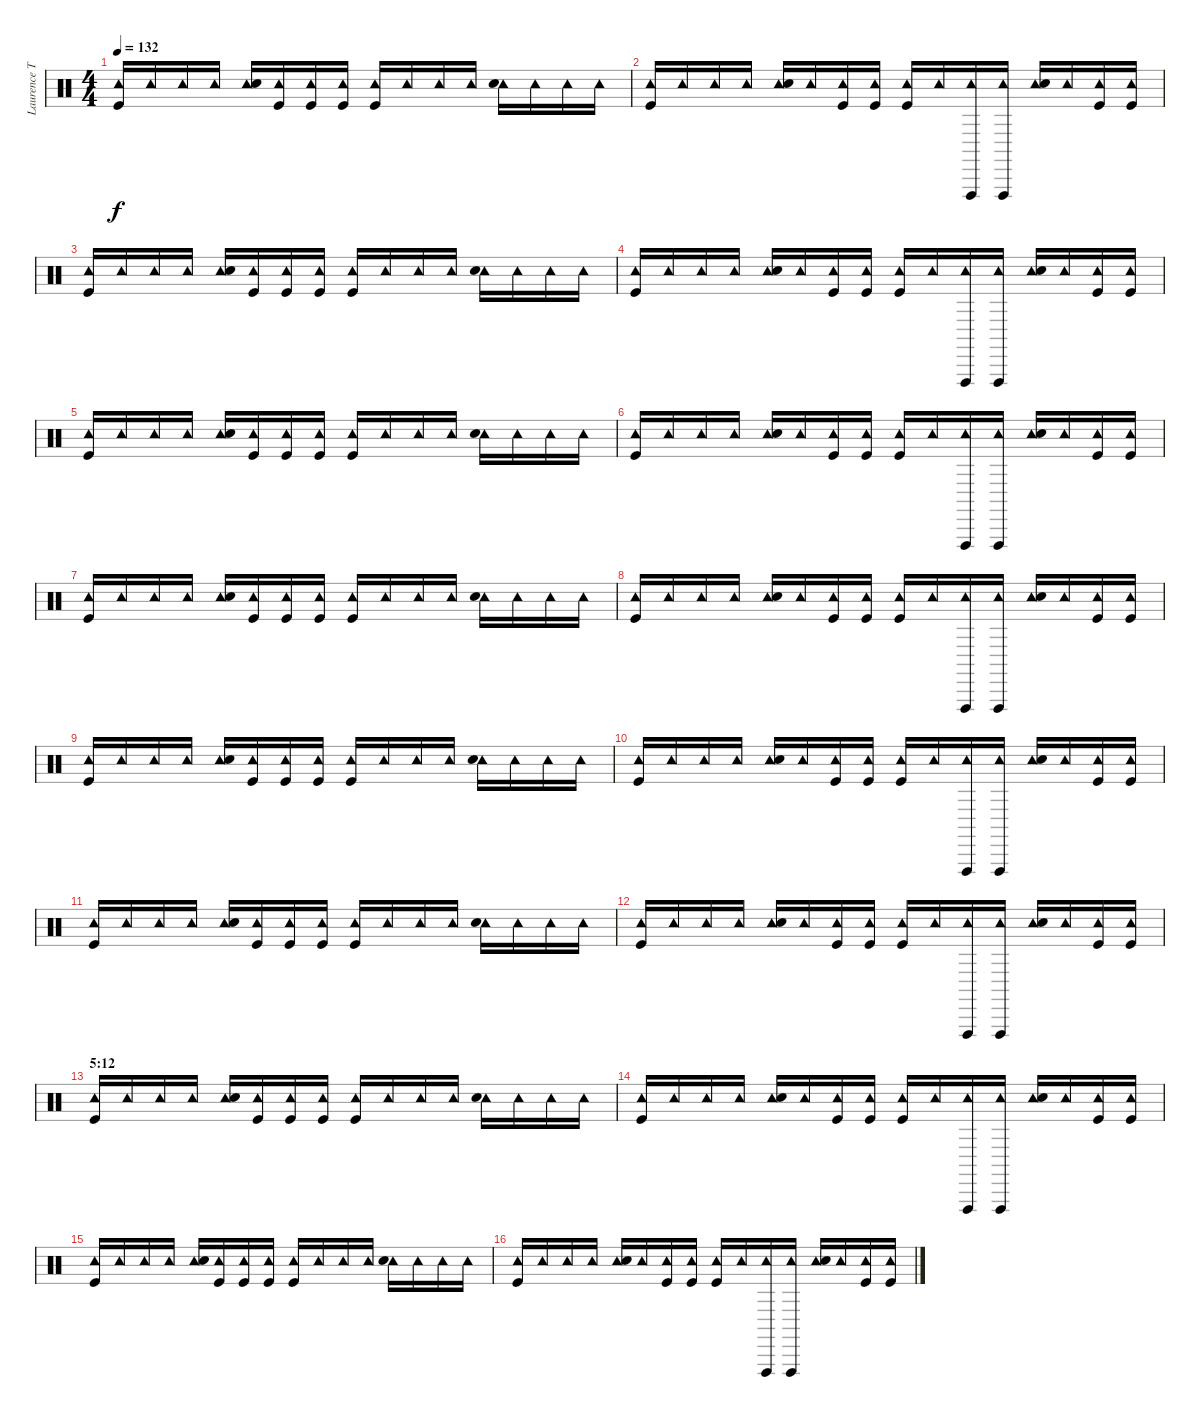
\track ("Laurence Tolhurst (drums)" "Laurence T") {instrument percussion}
\staff {score}
\articulation defaults
\ts (4 4)
\tempo 132
\clef neutral
\ks c
("Tambourine (hit)" "Kick (hit)").16{dy f} "Tambourine (hit)".16 "Tambourine (hit)".16 "Tambourine (hit)".16 ("Tambourine (hit)" "Snare (hit) 2").16 ("Tambourine (hit)" "Kick (hit)").16 ("Tambourine (hit)" "Kick (hit)").16 ("Tambourine (hit)" "Kick (hit)").16 ("Tambourine (hit)" "Kick (hit)").16 "Tambourine (hit)".16 "Tambourine (hit)".16 "Tambourine (hit)".16 ("Tambourine (hit)" "Snare (hit) 2").16 "Tambourine (hit)".16 "Tambourine (hit)".16 "Tambourine (hit)".16 |
("Tambourine (hit)" "Kick (hit)").16 "Tambourine (hit)".16 "Tambourine (hit)".16 "Tambourine (hit)".16 ("Tambourine (hit)" "Snare (hit) 2").16 "Tambourine (hit)".16 ("Tambourine (hit)" "Kick (hit)").16 ("Tambourine (hit)" "Kick (hit)").16 ("Tambourine (hit)" "Kick (hit)").16 "Tambourine (hit)".16 ("Tambourine (hit)" "Vibraslap (hit)").16 ("Tambourine (hit)" "Vibraslap (hit)").16 ("Tambourine (hit)" "Snare (hit) 2").16 "Tambourine (hit)".16 ("Tambourine (hit)" "Kick (hit)").16 ("Tambourine (hit)" "Kick (hit)").16 |
("Tambourine (hit)" "Kick (hit)").16 "Tambourine (hit)".16 "Tambourine (hit)".16 "Tambourine (hit)".16 ("Tambourine (hit)" "Snare (hit) 2").16 ("Tambourine (hit)" "Kick (hit)").16 ("Tambourine (hit)" "Kick (hit)").16 ("Tambourine (hit)" "Kick (hit)").16 ("Tambourine (hit)" "Kick (hit)").16 "Tambourine (hit)".16 "Tambourine (hit)".16 "Tambourine (hit)".16 ("Tambourine (hit)" "Snare (hit) 2").16 "Tambourine (hit)".16 "Tambourine (hit)".16 "Tambourine (hit)".16 |
("Tambourine (hit)" "Kick (hit)").16 "Tambourine (hit)".16 "Tambourine (hit)".16 "Tambourine (hit)".16 ("Tambourine (hit)" "Snare (hit) 2").16 "Tambourine (hit)".16 ("Tambourine (hit)" "Kick (hit)").16 ("Tambourine (hit)" "Kick (hit)").16 ("Tambourine (hit)" "Kick (hit)").16 "Tambourine (hit)".16 ("Tambourine (hit)" "Vibraslap (hit)").16 ("Tambourine (hit)" "Vibraslap (hit)").16 ("Tambourine (hit)" "Snare (hit) 2").16 "Tambourine (hit)".16 ("Tambourine (hit)" "Kick (hit)").16 ("Tambourine (hit)" "Kick (hit)").16 |
("Tambourine (hit)" "Kick (hit)").16 "Tambourine (hit)".16 "Tambourine (hit)".16 "Tambourine (hit)".16 ("Tambourine (hit)" "Snare (hit) 2").16 ("Tambourine (hit)" "Kick (hit)").16 ("Tambourine (hit)" "Kick (hit)").16 ("Tambourine (hit)" "Kick (hit)").16 ("Tambourine (hit)" "Kick (hit)").16 "Tambourine (hit)".16 "Tambourine (hit)".16 "Tambourine (hit)".16 ("Tambourine (hit)" "Snare (hit) 2").16 "Tambourine (hit)".16 "Tambourine (hit)".16 "Tambourine (hit)".16 |
("Tambourine (hit)" "Kick (hit)").16 "Tambourine (hit)".16 "Tambourine (hit)".16 "Tambourine (hit)".16 ("Tambourine (hit)" "Snare (hit) 2").16 "Tambourine (hit)".16 ("Tambourine (hit)" "Kick (hit)").16 ("Tambourine (hit)" "Kick (hit)").16 ("Tambourine (hit)" "Kick (hit)").16 "Tambourine (hit)".16 ("Tambourine (hit)" "Vibraslap (hit)").16 ("Tambourine (hit)" "Vibraslap (hit)").16 ("Tambourine (hit)" "Snare (hit) 2").16 "Tambourine (hit)".16 ("Tambourine (hit)" "Kick (hit)").16 ("Tambourine (hit)" "Kick (hit)").16 |
("Tambourine (hit)" "Kick (hit)").16 "Tambourine (hit)".16 "Tambourine (hit)".16 "Tambourine (hit)".16 ("Tambourine (hit)" "Snare (hit) 2").16 ("Tambourine (hit)" "Kick (hit)").16 ("Tambourine (hit)" "Kick (hit)").16 ("Tambourine (hit)" "Kick (hit)").16 ("Tambourine (hit)" "Kick (hit)").16 "Tambourine (hit)".16 "Tambourine (hit)".16 "Tambourine (hit)".16 ("Tambourine (hit)" "Snare (hit) 2").16 "Tambourine (hit)".16 "Tambourine (hit)".16 "Tambourine (hit)".16 |
("Tambourine (hit)" "Kick (hit)").16 "Tambourine (hit)".16 "Tambourine (hit)".16 "Tambourine (hit)".16 ("Tambourine (hit)" "Snare (hit) 2").16 "Tambourine (hit)".16 ("Tambourine (hit)" "Kick (hit)").16 ("Tambourine (hit)" "Kick (hit)").16 ("Tambourine (hit)" "Kick (hit)").16 "Tambourine (hit)".16 ("Tambourine (hit)" "Vibraslap (hit)").16 ("Tambourine (hit)" "Vibraslap (hit)").16 ("Tambourine (hit)" "Snare (hit) 2").16 "Tambourine (hit)".16 ("Tambourine (hit)" "Kick (hit)").16 ("Tambourine (hit)" "Kick (hit)").16 |
("Tambourine (hit)" "Kick (hit)").16 "Tambourine (hit)".16 "Tambourine (hit)".16 "Tambourine (hit)".16 ("Tambourine (hit)" "Snare (hit) 2").16 ("Tambourine (hit)" "Kick (hit)").16 ("Tambourine (hit)" "Kick (hit)").16 ("Tambourine (hit)" "Kick (hit)").16 ("Tambourine (hit)" "Kick (hit)").16 "Tambourine (hit)".16 "Tambourine (hit)".16 "Tambourine (hit)".16 ("Tambourine (hit)" "Snare (hit) 2").16 "Tambourine (hit)".16 "Tambourine (hit)".16 "Tambourine (hit)".16 |
("Tambourine (hit)" "Kick (hit)").16 "Tambourine (hit)".16 "Tambourine (hit)".16 "Tambourine (hit)".16 ("Tambourine (hit)" "Snare (hit) 2").16 "Tambourine (hit)".16 ("Tambourine (hit)" "Kick (hit)").16 ("Tambourine (hit)" "Kick (hit)").16 ("Tambourine (hit)" "Kick (hit)").16 "Tambourine (hit)".16 ("Tambourine (hit)" "Vibraslap (hit)").16 ("Tambourine (hit)" "Vibraslap (hit)").16 ("Tambourine (hit)" "Snare (hit) 2").16 "Tambourine (hit)".16 ("Tambourine (hit)" "Kick (hit)").16 ("Tambourine (hit)" "Kick (hit)").16 |
("Tambourine (hit)" "Kick (hit)").16 "Tambourine (hit)".16 "Tambourine (hit)".16 "Tambourine (hit)".16 ("Tambourine (hit)" "Snare (hit) 2").16 ("Tambourine (hit)" "Kick (hit)").16 ("Tambourine (hit)" "Kick (hit)").16 ("Tambourine (hit)" "Kick (hit)").16 ("Tambourine (hit)" "Kick (hit)").16 "Tambourine (hit)".16 "Tambourine (hit)".16 "Tambourine (hit)".16 ("Tambourine (hit)" "Snare (hit) 2").16 "Tambourine (hit)".16 "Tambourine (hit)".16 "Tambourine (hit)".16 |
("Tambourine (hit)" "Kick (hit)").16 "Tambourine (hit)".16 "Tambourine (hit)".16 "Tambourine (hit)".16 ("Tambourine (hit)" "Snare (hit) 2").16 "Tambourine (hit)".16 ("Tambourine (hit)" "Kick (hit)").16 ("Tambourine (hit)" "Kick (hit)").16 ("Tambourine (hit)" "Kick (hit)").16 "Tambourine (hit)".16 ("Tambourine (hit)" "Vibraslap (hit)").16 ("Tambourine (hit)" "Vibraslap (hit)").16 ("Tambourine (hit)" "Snare (hit) 2").16 "Tambourine (hit)".16 ("Tambourine (hit)" "Kick (hit)").16 ("Tambourine (hit)" "Kick (hit)").16 |
\section ("" "5:12")
("Tambourine (hit)" "Kick (hit)").16 "Tambourine (hit)".16 "Tambourine (hit)".16 "Tambourine (hit)".16 ("Tambourine (hit)" "Snare (hit) 2").16 ("Tambourine (hit)" "Kick (hit)").16 ("Tambourine (hit)" "Kick (hit)").16 ("Tambourine (hit)" "Kick (hit)").16 ("Tambourine (hit)" "Kick (hit)").16 "Tambourine (hit)".16 "Tambourine (hit)".16 "Tambourine (hit)".16 ("Tambourine (hit)" "Snare (hit) 2").16 "Tambourine (hit)".16 "Tambourine (hit)".16 "Tambourine (hit)".16 |
("Tambourine (hit)" "Kick (hit)").16 "Tambourine (hit)".16 "Tambourine (hit)".16 "Tambourine (hit)".16 ("Tambourine (hit)" "Snare (hit) 2").16 "Tambourine (hit)".16 ("Tambourine (hit)" "Kick (hit)").16 ("Tambourine (hit)" "Kick (hit)").16 ("Tambourine (hit)" "Kick (hit)").16 "Tambourine (hit)".16 ("Tambourine (hit)" "Vibraslap (hit)").16 ("Tambourine (hit)" "Vibraslap (hit)").16 ("Tambourine (hit)" "Snare (hit) 2").16 "Tambourine (hit)".16 ("Tambourine (hit)" "Kick (hit)").16 ("Tambourine (hit)" "Kick (hit)").16 |
("Tambourine (hit)" "Kick (hit)").16 "Tambourine (hit)".16 "Tambourine (hit)".16 "Tambourine (hit)".16 ("Tambourine (hit)" "Snare (hit) 2").16 ("Tambourine (hit)" "Kick (hit)").16 ("Tambourine (hit)" "Kick (hit)").16 ("Tambourine (hit)" "Kick (hit)").16 ("Tambourine (hit)" "Kick (hit)").16 "Tambourine (hit)".16 "Tambourine (hit)".16 "Tambourine (hit)".16 ("Tambourine (hit)" "Snare (hit) 2").16 "Tambourine (hit)".16 "Tambourine (hit)".16 "Tambourine (hit)".16 |
("Tambourine (hit)" "Kick (hit)").16 "Tambourine (hit)".16 "Tambourine (hit)".16 "Tambourine (hit)".16 ("Tambourine (hit)" "Snare (hit) 2").16 "Tambourine (hit)".16 ("Tambourine (hit)" "Kick (hit)").16 ("Tambourine (hit)" "Kick (hit)").16 ("Tambourine (hit)" "Kick (hit)").16 "Tambourine (hit)".16 ("Tambourine (hit)" "Vibraslap (hit)").16 ("Tambourine (hit)" "Vibraslap (hit)").16 ("Tambourine (hit)" "Snare (hit) 2").16 "Tambourine (hit)".16 ("Tambourine (hit)" "Kick (hit)").16 ("Tambourine (hit)" "Kick (hit)").16
